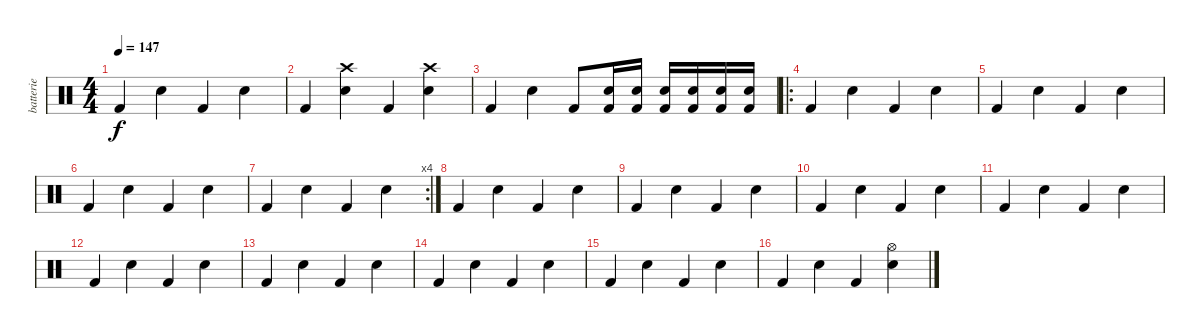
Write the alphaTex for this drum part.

\track ("batterie" "batterie") {instrument percussion}
\staff {score}
\articulation defaults
\ts (4 4)
\tempo 147
\clef neutral
\ks c "Kick (hit) 2".4{dy f} "Snare (hit) 2".4 "Kick (hit) 2".4 "Snare (hit) 2".4
|
"Kick (hit) 2".4 ("Snare (hit) 2" "Crash high (hit)").4 "Kick (hit) 2".4 ("Snare (hit) 2" "Crash high (hit)").4 |
"Kick (hit) 2".4 "Snare (hit) 2".4 "Kick (hit) 2".8 ("Snare (hit) 2" "Kick (hit) 2").16 ("Snare (hit) 2" "Kick (hit) 2").16 ("Snare (hit) 2" "Kick (hit) 2").16 ("Snare (hit) 2" "Kick (hit) 2").16 ("Snare (hit) 2" "Kick (hit) 2").16 ("Snare (hit) 2" "Kick (hit) 2").16 |
\ro "Kick (hit) 2".4 "Snare (hit) 2".4 "Kick (hit) 2".4 "Snare (hit) 2".4
|
"Kick (hit) 2".4 "Snare (hit) 2".4 "Kick (hit) 2".4 "Snare (hit) 2".4 |
"Kick (hit) 2".4 "Snare (hit) 2".4 "Kick (hit) 2".4 "Snare (hit) 2".4 |
\rc 4 "Kick (hit) 2".4 "Snare (hit) 2".4 "Kick (hit) 2".4 "Snare (hit) 2".4
|
"Kick (hit) 2".4 "Snare (hit) 2".4 "Kick (hit) 2".4 "Snare (hit) 2".4 |
"Kick (hit) 2".4 "Snare (hit) 2".4 "Kick (hit) 2".4 "Snare (hit) 2".4 |
"Kick (hit) 2".4 "Snare (hit) 2".4 "Kick (hit) 2".4 "Snare (hit) 2".4 |
"Kick (hit) 2".4 "Snare (hit) 2".4 "Kick (hit) 2".4 "Snare (hit) 2".4 |
"Kick (hit) 2".4 "Snare (hit) 2".4 "Kick (hit) 2".4 "Snare (hit) 2".4 |
"Kick (hit) 2".4 "Snare (hit) 2".4 "Kick (hit) 2".4 "Snare (hit) 2".4 |
"Kick (hit) 2".4 "Snare (hit) 2".4 "Kick (hit) 2".4 "Snare (hit) 2".4 |
"Kick (hit) 2".4 "Snare (hit) 2".4 "Kick (hit) 2".4 "Snare (hit) 2".4 |
"Kick (hit) 2".4 "Snare (hit) 2".4 "Kick (hit) 2".4 ("Snare (hit) 2" "Hi-Hat (open)").4
